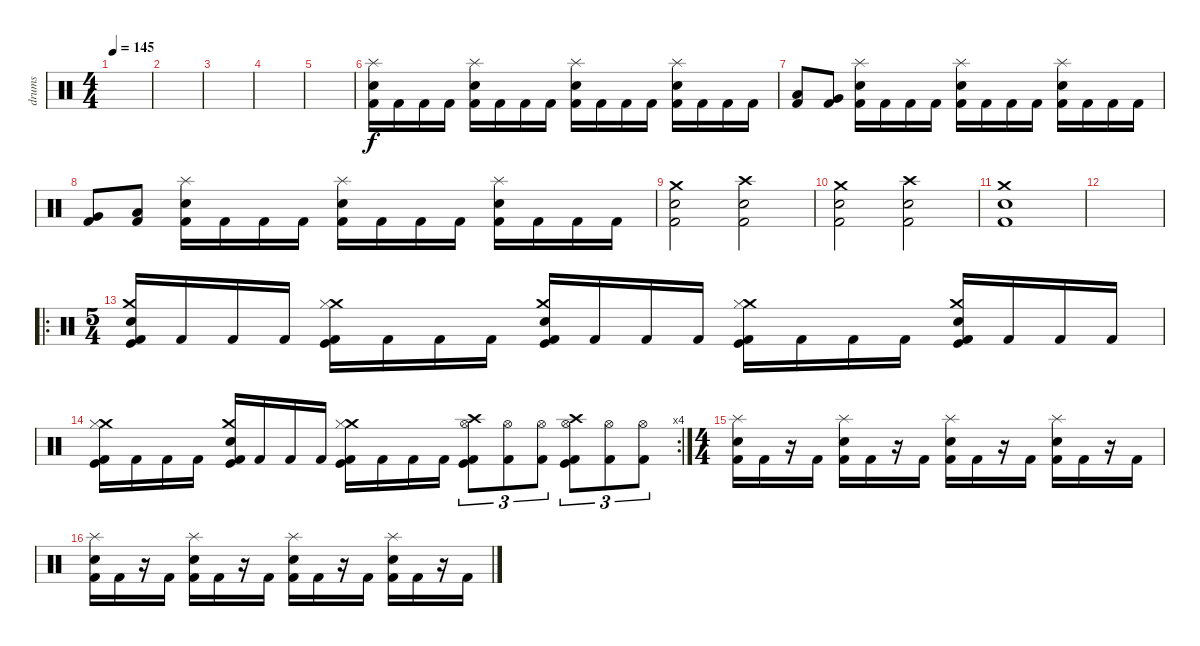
\track ("drums" "drums") {instrument percussion}
\staff {score}
\articulation defaults
\ts (4 4)
\tempo 145
\clef neutral
\ks c
|
|
|
|
|
("Splash (hit)" "Electric Snare (hit)" "Kick (hit) 2").16 "Kick (hit) 2".16 "Kick (hit) 2".16 "Kick (hit) 2".16 ("Splash (hit)" "Electric Snare (hit)" "Kick (hit) 2").16 "Kick (hit) 2".16 "Kick (hit) 2".16 "Kick (hit) 2".16 ("Splash (hit)" "Electric Snare (hit)" "Kick (hit) 2").16 "Kick (hit) 2".16 "Kick (hit) 2".16 "Kick (hit) 2".16 ("Splash (hit)" "Electric Snare (hit)" "Kick (hit) 2").16 "Kick (hit) 2".16 "Kick (hit) 2".16 "Kick (hit) 2".16 |
("Low Floor Tom (hit)" "Kick (hit) 2").8 ("Very Low Tom (hit)" "Kick (hit) 2").8 ("Splash (hit)" "Electric Snare (hit)" "Kick (hit) 2").16 "Kick (hit) 2".16 "Kick (hit) 2".16 "Kick (hit) 2".16 ("Splash (hit)" "Electric Snare (hit)" "Kick (hit) 2").16 "Kick (hit) 2".16 "Kick (hit) 2".16 "Kick (hit) 2".16 ("Splash (hit)" "Electric Snare (hit)" "Kick (hit) 2").16 "Kick (hit) 2".16 "Kick (hit) 2".16 "Kick (hit) 2".16 |
("Very Low Tom (hit)" "Kick (hit) 2").8 ("Low Floor Tom (hit)" "Kick (hit) 2").8 ("Splash (hit)" "Electric Snare (hit)" "Kick (hit) 2").16 "Kick (hit) 2".16 "Kick (hit) 2".16 "Kick (hit) 2".16 ("Splash (hit)" "Electric Snare (hit)" "Kick (hit) 2").16 "Kick (hit) 2".16 "Kick (hit) 2".16 "Kick (hit) 2".16 ("Splash (hit)" "Electric Snare (hit)" "Kick (hit) 2").16 "Kick (hit) 2".16 "Kick (hit) 2".16 "Kick (hit) 2".16 |
("Crash medium (hit)" "Electric Snare (hit)" "Kick (hit) 2").2 ("Crash high (hit)" "Electric Snare (hit)" "Kick (hit) 2").2 |
("Crash medium (hit)" "Electric Snare (hit)" "Kick (hit) 2").2 ("Crash high (hit)" "Electric Snare (hit)" "Kick (hit) 2").2 |
("Crash medium (hit)" "Electric Snare (hit)" "Kick (hit) 2").1 |
|
\ro
\ts (5 4)
("Crash medium (hit)" "Electric Snare (hit)" "Kick (hit)" "Kick (hit) 2").16 "Kick (hit) 2".16 "Kick (hit) 2".16 "Kick (hit) 2".16 ("Crash medium (hit)" "Hi-Hat (closed)" "Kick (hit)" "Kick (hit) 2").16 "Kick (hit) 2".16 "Kick (hit) 2".16 "Kick (hit) 2".16 ("Crash medium (hit)" "Electric Snare (hit)" "Kick (hit)" "Kick (hit) 2").16 "Kick (hit) 2".16 "Kick (hit) 2".16 "Kick (hit) 2".16 ("Crash medium (hit)" "Hi-Hat (closed)" "Kick (hit)" "Kick (hit) 2").16 "Kick (hit) 2".16 "Kick (hit) 2".16 "Kick (hit) 2".16 ("Crash medium (hit)" "Electric Snare (hit)" "Kick (hit)" "Kick (hit) 2").16 "Kick (hit) 2".16 "Kick (hit) 2".16 "Kick (hit) 2".16 |
\rc 4
("Crash medium (hit)" "Hi-Hat (closed)" "Kick (hit)" "Kick (hit) 2").16 "Kick (hit) 2".16 "Kick (hit) 2".16 "Kick (hit) 2".16 ("Crash medium (hit)" "Electric Snare (hit)" "Kick (hit)" "Kick (hit) 2").16 "Kick (hit) 2".16 "Kick (hit) 2".16 "Kick (hit) 2".16 ("Crash medium (hit)" "Hi-Hat (closed)" "Kick (hit)" "Kick (hit) 2").16 "Kick (hit) 2".16 "Kick (hit) 2".16 "Kick (hit) 2".16 ("Hi-Hat (open)" "Crash high (hit)" "Kick (hit)" "Kick (hit) 2").8{tu (3 2)} ("Hi-Hat (open)" "Kick (hit) 2").8{tu (3 2)} ("Hi-Hat (open)" "Kick (hit) 2").8{tu (3 2)} ("Hi-Hat (open)" "Crash high (hit)" "Kick (hit)" "Kick (hit) 2").8{tu (3 2)} ("Hi-Hat (open)" "Kick (hit) 2").8{tu (3 2)} ("Hi-Hat (open)" "Kick (hit) 2").8{tu (3 2)} |
\ts (4 4)
("Splash (hit)" "Electric Snare (hit)" "Kick (hit) 2").16 "Kick (hit) 2".16 r.16 "Kick (hit) 2".16 ("Splash (hit)" "Electric Snare (hit)" "Kick (hit) 2").16 "Kick (hit) 2".16 r.16 "Kick (hit) 2".16 ("Splash (hit)" "Electric Snare (hit)" "Kick (hit) 2").16 "Kick (hit) 2".16 r.16 "Kick (hit) 2".16 ("Splash (hit)" "Electric Snare (hit)" "Kick (hit) 2").16 "Kick (hit) 2".16 r.16 "Kick (hit) 2".16 |
("Splash (hit)" "Electric Snare (hit)" "Kick (hit) 2").16 "Kick (hit) 2".16 r.16 "Kick (hit) 2".16 ("Splash (hit)" "Electric Snare (hit)" "Kick (hit) 2").16 "Kick (hit) 2".16 r.16 "Kick (hit) 2".16 ("Splash (hit)" "Electric Snare (hit)" "Kick (hit) 2").16 "Kick (hit) 2".16 r.16 "Kick (hit) 2".16 ("Splash (hit)" "Electric Snare (hit)" "Kick (hit) 2").16 "Kick (hit) 2".16 r.16 "Kick (hit) 2".16
